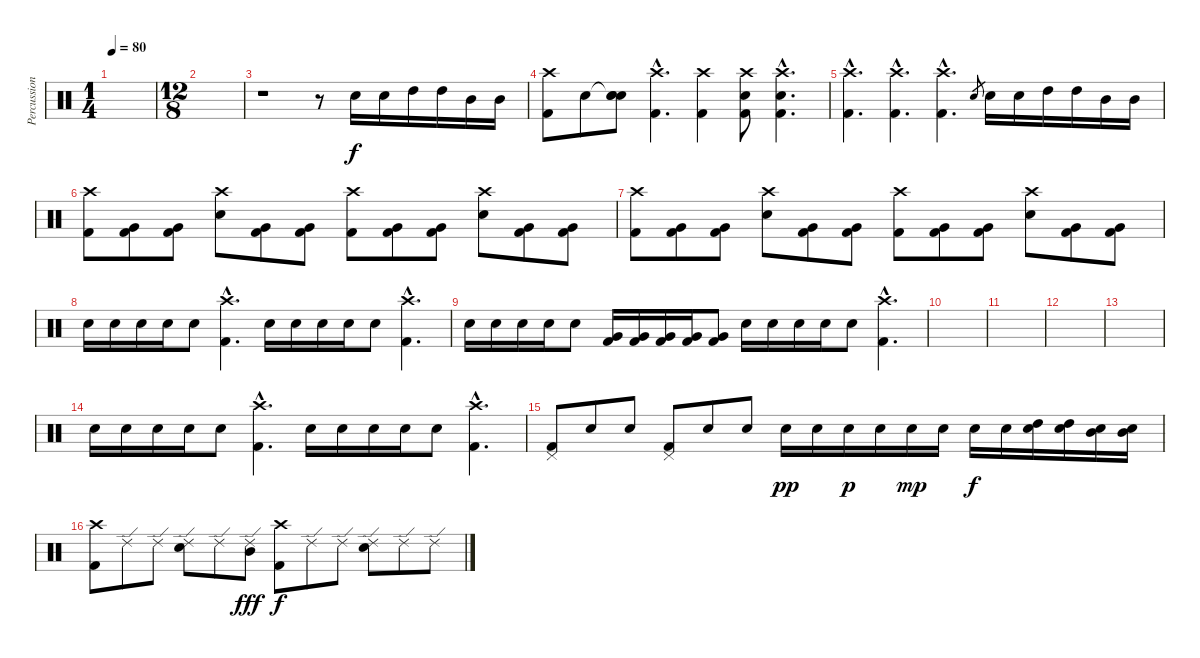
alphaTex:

\track ("Percussions" "Percussion") {instrument percussion}
\staff {score}
\articulation defaults
\ts (1 4)
\tempo 80
\clef neutral
\ks c
|
\ts (12 8)
|
r.1 r.8 "Electric Snare (hit)".16 "Electric Snare (hit)".16 "High Tom (hit)".16 "High Tom (hit)".16 "Mid Tom (hit)".16 "Mid Tom (hit)".16 |
("Crash high (hit)" "Kick (hit) 2").8 "Metronome (bell)".8 ("Snare (hit)"{t} "Metronome (bell)" "Snare (hit)").8 ("Crash high (hit)"{hac} "Kick (hit) 2"{hac}).4{d} ("Crash high (hit)" "Kick (hit) 2").4 ("Crash high (hit)"{pm} "Metronome (bell)" "Kick (hit) 2").8 ("Crash high (hit)"{hac} "Metronome (bell)"{hac} "Kick (hit) 2"{hac}).4{d} |
("Crash high (hit)"{hac} "Kick (hit) 2"{hac}).4{d} ("Crash high (hit)"{hac} "Kick (hit) 2"{hac}).4{d} ("Crash high (hit)"{hac} "Kick (hit) 2"{hac}).4{d} "Electric Snare (hit)".8{gr} "Electric Snare (hit)".16 "Electric Snare (hit)".16 "High Tom (hit)".16 "High Tom (hit)".16 "Mid Tom (hit)".16 "Mid Tom (hit)".16 |
("Crash high (hit)" "Kick (hit) 2").8 ("Very Low Tom (hit)" "Kick (hit) 2").8 ("Very Low Tom (hit)" "Kick (hit) 2").8 ("Crash high (hit)" "Electric Snare (hit)").8 ("Very Low Tom (hit)" "Kick (hit) 2").8 ("Very Low Tom (hit)" "Kick (hit) 2").8 ("Crash high (hit)" "Kick (hit) 2").8 ("Very Low Tom (hit)" "Kick (hit) 2").8 ("Very Low Tom (hit)" "Kick (hit) 2").8 ("Crash high (hit)" "Electric Snare (hit)").8 ("Very Low Tom (hit)" "Kick (hit) 2").8 ("Very Low Tom (hit)" "Kick (hit) 2").8 |
("Crash high (hit)" "Kick (hit) 2").8 ("Very Low Tom (hit)" "Kick (hit) 2").8 ("Very Low Tom (hit)" "Kick (hit) 2").8 ("Crash high (hit)" "Electric Snare (hit)").8 ("Very Low Tom (hit)" "Kick (hit) 2").8 ("Very Low Tom (hit)" "Kick (hit) 2").8 ("Crash high (hit)" "Kick (hit) 2").8 ("Very Low Tom (hit)" "Kick (hit) 2").8 ("Very Low Tom (hit)" "Kick (hit) 2").8 ("Crash high (hit)" "Electric Snare (hit)").8 ("Very Low Tom (hit)" "Kick (hit) 2").8 ("Very Low Tom (hit)" "Kick (hit) 2").8 |
"Electric Snare (hit)".16 "Electric Snare (hit)".16 "Electric Snare (hit)".16 "Electric Snare (hit)".16 "Electric Snare (hit)".8 ("Crash high (hit)"{hac} "Kick (hit) 2"{hac}).4{d} "Electric Snare (hit)".16 "Electric Snare (hit)".16 "Electric Snare (hit)".16 "Electric Snare (hit)".16 "Electric Snare (hit)".8 ("Crash high (hit)"{hac} "Kick (hit) 2"{hac}).4{d} |
"Electric Snare (hit)".16 "Electric Snare (hit)".16 "Electric Snare (hit)".16 "Electric Snare (hit)".16 "Electric Snare (hit)".8 ("Very Low Tom (hit)" "Kick (hit) 2").16 ("Very Low Tom (hit)" "Kick (hit) 2").16 ("Very Low Tom (hit)" "Kick (hit) 2").16 ("Very Low Tom (hit)" "Kick (hit) 2").16 ("Very Low Tom (hit)" "Kick (hit) 2").8 "Electric Snare (hit)".16 "Electric Snare (hit)".16 "Electric Snare (hit)".16 "Electric Snare (hit)".16 "Electric Snare (hit)".8 ("Crash high (hit)"{hac} "Kick (hit) 2"{hac}).4{d} |
|
|
|
|
"Electric Snare (hit)".16 "Electric Snare (hit)".16 "Electric Snare (hit)".16 "Electric Snare (hit)".16 "Electric Snare (hit)".8 ("Crash high (hit)"{hac} "Kick (hit) 2"{hac}).4{d} "Electric Snare (hit)".16 "Electric Snare (hit)".16 "Electric Snare (hit)".16 "Electric Snare (hit)".16 "Electric Snare (hit)".8 ("Crash high (hit)"{hac} "Kick (hit) 2"{hac}).4{d} |
("Pedal Hi-Hat (hit)" "Kick (hit) 2").8 "Electric Snare (hit)".8 "Electric Snare (hit)".8 ("Pedal Hi-Hat (hit)" "Kick (hit) 2").8 "Electric Snare (hit)".8 "Electric Snare (hit)".8 "Electric Snare (hit)".16{dy pp} "Electric Snare (hit)".16 "Electric Snare (hit)".16{dy p} "Electric Snare (hit)".16 "Electric Snare (hit)".16{dy mp} "Electric Snare (hit)".16 "Electric Snare (hit)".16{dy f} "Electric Snare (hit)".16 ("High Tom (hit)" "Electric Snare (hit)").16 ("High Tom (hit)" "Electric Snare (hit)").16 ("Mid Tom (hit)" "Electric Snare (hit)").16 ("Mid Tom (hit)" "Electric Snare (hit)").16 |
("Crash high (hit)" "Kick (hit) 2").8 "Ride (edge) 2".8 "Ride (edge) 2".8 ("Ride (edge) 2" "Electric Snare (hit)").8 "Ride (edge) 2".8 ("Ride (edge) 2" "Mid Tom (hit)").8{dy fff} ("Crash high (hit)" "Kick (hit) 2").8{dy f} "Ride (edge) 2".8 "Ride (edge) 2".8 ("Ride (edge) 2" "Electric Snare (hit)").8 "Ride (edge) 2".8 "Ride (edge) 2".8
